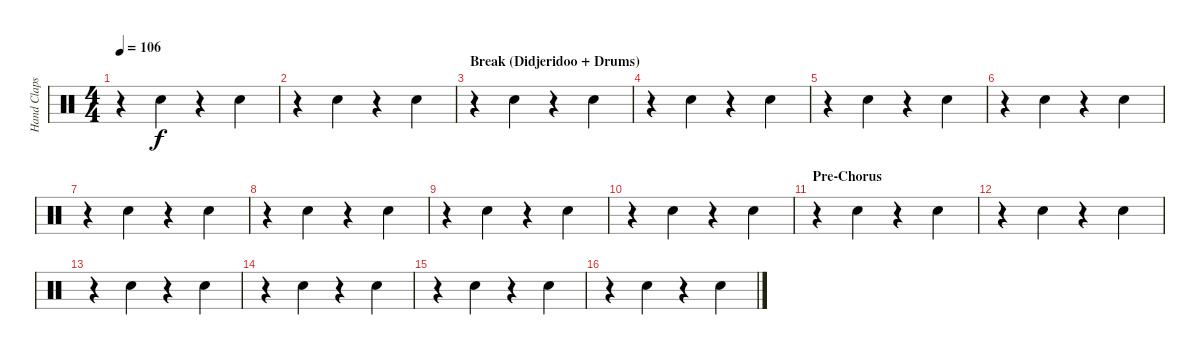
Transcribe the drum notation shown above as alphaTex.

\track ("Hand Claps" "Hand Claps") {instrument percussion}
\staff {score}
\articulation defaults
\ts (4 4)
\tempo 106
\clef neutral
\ks c
r.4{dy f} "Hand Clap (hit)".4 r.4 "Hand Clap (hit)".4 |
r.4 "Hand Clap (hit)".4 r.4 "Hand Clap (hit)".4 |
\section ("" "Break (Didjeridoo + Drums)")
r.4 "Hand Clap (hit)".4 r.4 "Hand Clap (hit)".4 |
r.4 "Hand Clap (hit)".4 r.4 "Hand Clap (hit)".4 |
r.4 "Hand Clap (hit)".4 r.4 "Hand Clap (hit)".4 |
r.4 "Hand Clap (hit)".4 r.4 "Hand Clap (hit)".4 |
r.4 "Hand Clap (hit)".4 r.4 "Hand Clap (hit)".4 |
r.4 "Hand Clap (hit)".4 r.4 "Hand Clap (hit)".4 |
r.4 "Hand Clap (hit)".4 r.4 "Hand Clap (hit)".4 |
r.4 "Hand Clap (hit)".4 r.4 "Hand Clap (hit)".4 |
\section ("" "Pre-Chorus")
r.4 "Hand Clap (hit)".4 r.4 "Hand Clap (hit)".4 |
r.4 "Hand Clap (hit)".4 r.4 "Hand Clap (hit)".4 |
r.4 "Hand Clap (hit)".4 r.4 "Hand Clap (hit)".4 |
r.4 "Hand Clap (hit)".4 r.4 "Hand Clap (hit)".4 |
r.4 "Hand Clap (hit)".4 r.4 "Hand Clap (hit)".4 |
r.4 "Hand Clap (hit)".4 r.4 "Hand Clap (hit)".4
